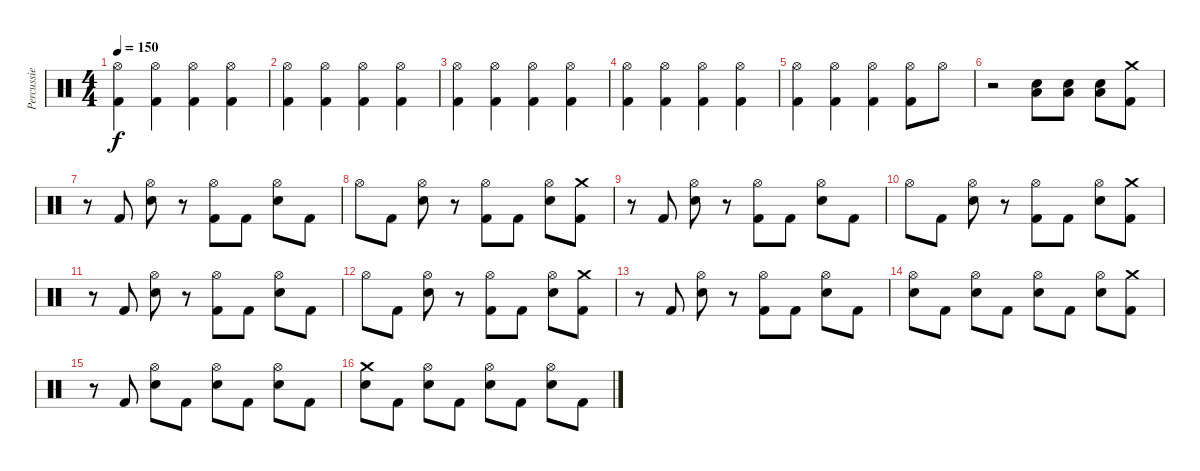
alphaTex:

\track ("Percussie" "Percussie") {instrument percussion}
\staff {score}
\articulation defaults
\ts (4 4)
\tempo 150
\clef neutral
\ks c
("Hi-Hat (open)" "Kick (hit) 2").4{dy f} ("Hi-Hat (open)" "Kick (hit) 2").4 ("Hi-Hat (open)" "Kick (hit) 2").4 ("Hi-Hat (open)" "Kick (hit) 2").4 |
("Hi-Hat (open)" "Kick (hit) 2").4 ("Hi-Hat (open)" "Kick (hit) 2").4 ("Hi-Hat (open)" "Kick (hit) 2").4 ("Hi-Hat (open)" "Kick (hit) 2").4 |
("Hi-Hat (open)" "Kick (hit) 2").4 ("Hi-Hat (open)" "Kick (hit) 2").4 ("Hi-Hat (open)" "Kick (hit) 2").4 ("Hi-Hat (open)" "Kick (hit) 2").4 |
("Hi-Hat (open)" "Kick (hit) 2").4 ("Hi-Hat (open)" "Kick (hit) 2").4 ("Hi-Hat (open)" "Kick (hit) 2").4 ("Hi-Hat (open)" "Kick (hit) 2").4 |
("Hi-Hat (open)" "Kick (hit) 2").4 ("Hi-Hat (open)" "Kick (hit) 2").4 ("Hi-Hat (open)" "Kick (hit) 2").4 ("Hi-Hat (open)" "Kick (hit) 2").8 "Hi-Hat (open)".8 |
r.2 ("Snare (hit) 2" "Low Tom (hit)").8 ("Snare (hit) 2" "Low Tom (hit)").8 ("Snare (hit) 2" "Low Tom (hit)").8 ("Crash medium (hit)" "Kick (hit) 2").8 |
r.8 "Kick (hit) 2".8 ("Hi-Hat (open)" "Snare (hit) 2").8 r.8 ("Hi-Hat (open)" "Kick (hit) 2").8 "Kick (hit) 2".8 ("Hi-Hat (open)" "Snare (hit) 2").8 "Kick (hit) 2".8 |
"Hi-Hat (open)".8 "Kick (hit) 2".8 ("Hi-Hat (open)" "Snare (hit) 2").8 r.8 ("Hi-Hat (open)" "Kick (hit) 2").8 "Kick (hit) 2".8 ("Hi-Hat (open)" "Snare (hit) 2").8 ("Crash medium (hit)" "Kick (hit) 2").8 |
r.8 "Kick (hit) 2".8 ("Hi-Hat (open)" "Snare (hit) 2").8 r.8 ("Hi-Hat (open)" "Kick (hit) 2").8 "Kick (hit) 2".8 ("Hi-Hat (open)" "Snare (hit) 2").8 "Kick (hit) 2".8 |
"Hi-Hat (open)".8 "Kick (hit) 2".8 ("Hi-Hat (open)" "Snare (hit) 2").8 r.8 ("Hi-Hat (open)" "Kick (hit) 2").8 "Kick (hit) 2".8 ("Hi-Hat (open)" "Snare (hit) 2").8 ("Crash medium (hit)" "Kick (hit) 2").8 |
r.8 "Kick (hit) 2".8 ("Hi-Hat (open)" "Snare (hit) 2").8 r.8 ("Hi-Hat (open)" "Kick (hit) 2").8 "Kick (hit) 2".8 ("Hi-Hat (open)" "Snare (hit) 2").8 "Kick (hit) 2".8 |
"Hi-Hat (open)".8 "Kick (hit) 2".8 ("Hi-Hat (open)" "Snare (hit) 2").8 r.8 ("Hi-Hat (open)" "Kick (hit) 2").8 "Kick (hit) 2".8 ("Hi-Hat (open)" "Snare (hit) 2").8 ("Crash medium (hit)" "Kick (hit) 2").8 |
r.8 "Kick (hit) 2".8 ("Hi-Hat (open)" "Snare (hit) 2").8 r.8 ("Hi-Hat (open)" "Kick (hit) 2").8 "Kick (hit) 2".8 ("Hi-Hat (open)" "Snare (hit) 2").8 "Kick (hit) 2".8 |
("Hi-Hat (open)" "Snare (hit) 2").8 "Kick (hit) 2".8 ("Hi-Hat (open)" "Snare (hit) 2").8 "Kick (hit) 2".8 ("Hi-Hat (open)" "Snare (hit) 2").8 "Kick (hit) 2".8 ("Hi-Hat (open)" "Snare (hit) 2").8 ("Crash medium (hit)" "Kick (hit) 2").8 |
r.8 "Kick (hit) 2".8 ("Hi-Hat (open)" "Snare (hit) 2").8 "Kick (hit) 2".8 ("Hi-Hat (open)" "Snare (hit) 2").8 "Kick (hit) 2".8 ("Hi-Hat (open)" "Snare (hit) 2").8 "Kick (hit) 2".8 |
("Crash medium (hit)" "Snare (hit) 2").8 "Kick (hit) 2".8 ("Hi-Hat (open)" "Snare (hit) 2").8 "Kick (hit) 2".8 ("Hi-Hat (open)" "Snare (hit) 2").8 "Kick (hit) 2".8 ("Hi-Hat (open)" "Snare (hit) 2").8 "Kick (hit) 2".8
